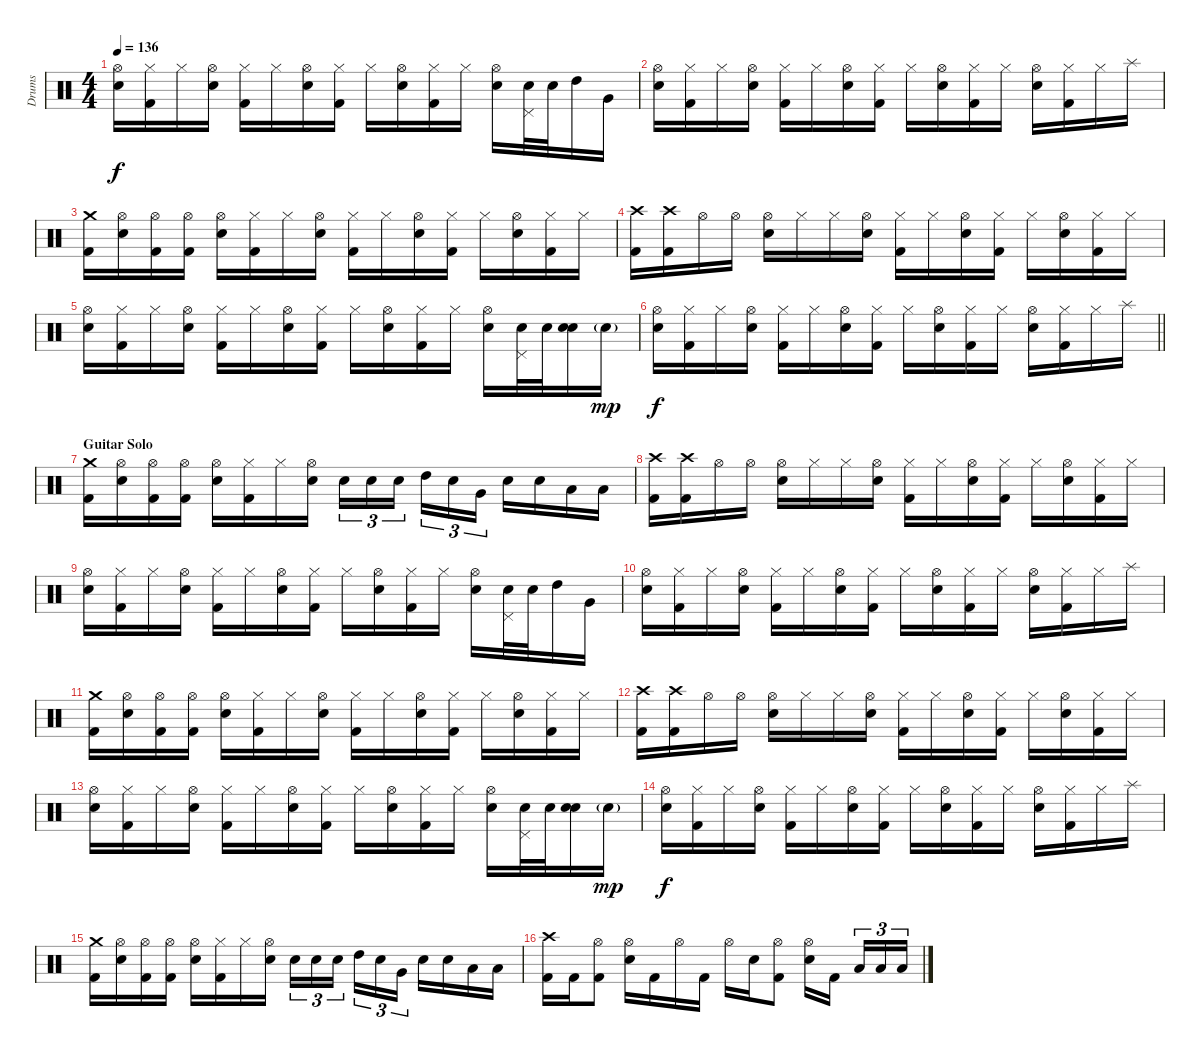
\track ("Drums" "Drums") {instrument percussion}
\staff {score}
\articulation defaults
\ts (4 4)
\tempo 136
\clef neutral
\ks c
("Hi-Hat (open)" "Electric Snare (hit)").16{dy f} ("Hi-Hat (closed)" "Kick (hit) 2").16 "Hi-Hat (closed)".16 ("Hi-Hat (open)" "Electric Snare (hit)").16 ("Hi-Hat (closed)" "Kick (hit) 2").16 "Hi-Hat (closed)".16 ("Hi-Hat (open)" "Electric Snare (hit)").16 ("Hi-Hat (closed)" "Kick (hit) 2").16 "Hi-Hat (closed)".16 ("Hi-Hat (open)" "Electric Snare (hit)").16 ("Hi-Hat (closed)" "Kick (hit) 2").16 "Hi-Hat (closed)".16 ("Hi-Hat (open)" "Electric Snare (hit)").16 ("Pedal Hi-Hat (hit)" "Electric Snare (hit)").32 "Electric Snare (hit)".32 "High Tom (hit)".16 "Very Low Tom (hit)".16 |
("Hi-Hat (open)" "Electric Snare (hit)").16 ("Hi-Hat (closed)" "Kick (hit) 2").16 "Hi-Hat (closed)".16 ("Hi-Hat (open)" "Electric Snare (hit)").16 ("Hi-Hat (closed)" "Kick (hit) 2").16 "Hi-Hat (closed)".16 ("Hi-Hat (open)" "Electric Snare (hit)").16 ("Hi-Hat (closed)" "Kick (hit) 2").16 "Hi-Hat (closed)".16 ("Hi-Hat (open)" "Electric Snare (hit)").16 ("Hi-Hat (closed)" "Kick (hit) 2").16 "Hi-Hat (closed)".16 ("Hi-Hat (open)" "Electric Snare (hit)").16 ("Hi-Hat (closed)" "Kick (hit) 2").16 "Hi-Hat (closed)".16 "Splash (hit)".16 |
("Crash medium (hit)" "Kick (hit) 2").16 ("Hi-Hat (open)" "Electric Snare (hit)").16 ("Hi-Hat (open)" "Kick (hit) 2").16 ("Hi-Hat (open)" "Kick (hit) 2").16 ("Hi-Hat (open)" "Electric Snare (hit)").16 ("Hi-Hat (closed)" "Kick (hit) 2").16 "Hi-Hat (closed)".16 ("Hi-Hat (open)" "Electric Snare (hit)").16 ("Hi-Hat (closed)" "Kick (hit) 2").16 "Hi-Hat (closed)".16 ("Hi-Hat (open)" "Electric Snare (hit)").16 ("Hi-Hat (closed)" "Kick (hit) 2").16 "Hi-Hat (closed)".16 ("Hi-Hat (open)" "Electric Snare (hit)").16 ("Hi-Hat (closed)" "Kick (hit) 2").16 "Hi-Hat (closed)".16 |
("Crash high (hit)" "Kick (hit) 2").16 ("Crash high (hit)" "Kick (hit) 2").16 "Hi-Hat (open)".16 "Hi-Hat (open)".16 ("Hi-Hat (open)" "Electric Snare (hit)").16 "Hi-Hat (closed)".16 "Hi-Hat (closed)".16 ("Hi-Hat (open)" "Electric Snare (hit)").16 ("Hi-Hat (closed)" "Kick (hit) 2").16 "Hi-Hat (closed)".16 ("Hi-Hat (open)" "Electric Snare (hit)").16 ("Hi-Hat (closed)" "Kick (hit) 2").16 "Hi-Hat (closed)".16 ("Hi-Hat (open)" "Electric Snare (hit)").16 ("Hi-Hat (closed)" "Kick (hit) 2").16 "Hi-Hat (closed)".16 |
("Hi-Hat (open)" "Electric Snare (hit)").16 ("Hi-Hat (closed)" "Kick (hit) 2").16 "Hi-Hat (closed)".16 ("Hi-Hat (open)" "Electric Snare (hit)").16 ("Hi-Hat (closed)" "Kick (hit) 2").16 "Hi-Hat (closed)".16 ("Hi-Hat (open)" "Electric Snare (hit)").16 ("Hi-Hat (closed)" "Kick (hit) 2").16 "Hi-Hat (closed)".16 ("Hi-Hat (open)" "Electric Snare (hit)").16 ("Hi-Hat (closed)" "Kick (hit) 2").16 "Hi-Hat (closed)".16 ("Hi-Hat (open)" "Electric Snare (hit)").16 ("Pedal Hi-Hat (hit)" "Electric Snare (hit)").32 "Electric Snare (hit)".32 ("Snare (hit) 2" "Electric Snare (hit)").16 "Electric Snare (hit)"{g}.16{dy mp} |
\barLineRight lightlight
("Hi-Hat (open)" "Electric Snare (hit)").16{dy f} ("Hi-Hat (closed)" "Kick (hit) 2").16 "Hi-Hat (closed)".16 ("Hi-Hat (open)" "Electric Snare (hit)").16 ("Hi-Hat (closed)" "Kick (hit) 2").16 "Hi-Hat (closed)".16 ("Hi-Hat (open)" "Electric Snare (hit)").16 ("Hi-Hat (closed)" "Kick (hit) 2").16 "Hi-Hat (closed)".16 ("Hi-Hat (open)" "Electric Snare (hit)").16 ("Hi-Hat (closed)" "Kick (hit) 2").16 "Hi-Hat (closed)".16 ("Hi-Hat (open)" "Electric Snare (hit)").16 ("Hi-Hat (closed)" "Kick (hit) 2").16 "Hi-Hat (closed)".16 "Splash (hit)".16 |
\section ("" "Guitar Solo")
("Crash medium (hit)" "Kick (hit) 2").16 ("Hi-Hat (open)" "Electric Snare (hit)").16 ("Hi-Hat (open)" "Kick (hit) 2").16 ("Hi-Hat (open)" "Kick (hit) 2").16 ("Hi-Hat (open)" "Electric Snare (hit)").16 ("Hi-Hat (closed)" "Kick (hit) 2").16 "Hi-Hat (closed)".16 ("Hi-Hat (open)" "Electric Snare (hit)").16 "Electric Snare (hit)".16{tu (3 2)} "Electric Snare (hit)".16{tu (3 2)} "Electric Snare (hit)".16{tu (3 2) beam splitsecondary} "High Tom (hit)".16{tu (3 2)} "Electric Snare (hit)".16{tu (3 2)} "Very Low Tom (hit)".16{tu (3 2)} "Electric Snare (hit)".16 "Electric Snare (hit)".16 "Low Tom (hit)".16 "Low Tom (hit)".16 |
("Crash high (hit)" "Kick (hit) 2").16 ("Crash high (hit)" "Kick (hit) 2").16 "Hi-Hat (open)".16 "Hi-Hat (open)".16 ("Hi-Hat (open)" "Electric Snare (hit)").16 "Hi-Hat (closed)".16 "Hi-Hat (closed)".16 ("Hi-Hat (open)" "Electric Snare (hit)").16 ("Hi-Hat (closed)" "Kick (hit) 2").16 "Hi-Hat (closed)".16 ("Hi-Hat (open)" "Electric Snare (hit)").16 ("Hi-Hat (closed)" "Kick (hit) 2").16 "Hi-Hat (closed)".16 ("Hi-Hat (open)" "Electric Snare (hit)").16 ("Hi-Hat (closed)" "Kick (hit) 2").16 "Hi-Hat (closed)".16 |
("Hi-Hat (open)" "Electric Snare (hit)").16 ("Hi-Hat (closed)" "Kick (hit) 2").16 "Hi-Hat (closed)".16 ("Hi-Hat (open)" "Electric Snare (hit)").16 ("Hi-Hat (closed)" "Kick (hit) 2").16 "Hi-Hat (closed)".16 ("Hi-Hat (open)" "Electric Snare (hit)").16 ("Hi-Hat (closed)" "Kick (hit) 2").16 "Hi-Hat (closed)".16 ("Hi-Hat (open)" "Electric Snare (hit)").16 ("Hi-Hat (closed)" "Kick (hit) 2").16 "Hi-Hat (closed)".16 ("Hi-Hat (open)" "Electric Snare (hit)").16 ("Pedal Hi-Hat (hit)" "Electric Snare (hit)").32 "Electric Snare (hit)".32 "High Tom (hit)".16 "Very Low Tom (hit)".16 |
("Hi-Hat (open)" "Electric Snare (hit)").16 ("Hi-Hat (closed)" "Kick (hit) 2").16 "Hi-Hat (closed)".16 ("Hi-Hat (open)" "Electric Snare (hit)").16 ("Hi-Hat (closed)" "Kick (hit) 2").16 "Hi-Hat (closed)".16 ("Hi-Hat (open)" "Electric Snare (hit)").16 ("Hi-Hat (closed)" "Kick (hit) 2").16 "Hi-Hat (closed)".16 ("Hi-Hat (open)" "Electric Snare (hit)").16 ("Hi-Hat (closed)" "Kick (hit) 2").16 "Hi-Hat (closed)".16 ("Hi-Hat (open)" "Electric Snare (hit)").16 ("Hi-Hat (closed)" "Kick (hit) 2").16 "Hi-Hat (closed)".16 "Splash (hit)".16 |
("Crash medium (hit)" "Kick (hit) 2").16 ("Hi-Hat (open)" "Electric Snare (hit)").16 ("Hi-Hat (open)" "Kick (hit) 2").16 ("Hi-Hat (open)" "Kick (hit) 2").16 ("Hi-Hat (open)" "Electric Snare (hit)").16 ("Hi-Hat (closed)" "Kick (hit) 2").16 "Hi-Hat (closed)".16 ("Hi-Hat (open)" "Electric Snare (hit)").16 ("Hi-Hat (closed)" "Kick (hit) 2").16 "Hi-Hat (closed)".16 ("Hi-Hat (open)" "Electric Snare (hit)").16 ("Hi-Hat (closed)" "Kick (hit) 2").16 "Hi-Hat (closed)".16 ("Hi-Hat (open)" "Electric Snare (hit)").16 ("Hi-Hat (closed)" "Kick (hit) 2").16 "Hi-Hat (closed)".16 |
("Crash high (hit)" "Kick (hit) 2").16 ("Crash high (hit)" "Kick (hit) 2").16 "Hi-Hat (open)".16 "Hi-Hat (open)".16 ("Hi-Hat (open)" "Electric Snare (hit)").16 "Hi-Hat (closed)".16 "Hi-Hat (closed)".16 ("Hi-Hat (open)" "Electric Snare (hit)").16 ("Hi-Hat (closed)" "Kick (hit) 2").16 "Hi-Hat (closed)".16 ("Hi-Hat (open)" "Electric Snare (hit)").16 ("Hi-Hat (closed)" "Kick (hit) 2").16 "Hi-Hat (closed)".16 ("Hi-Hat (open)" "Electric Snare (hit)").16 ("Hi-Hat (closed)" "Kick (hit) 2").16 "Hi-Hat (closed)".16 |
("Hi-Hat (open)" "Electric Snare (hit)").16 ("Hi-Hat (closed)" "Kick (hit) 2").16 "Hi-Hat (closed)".16 ("Hi-Hat (open)" "Electric Snare (hit)").16 ("Hi-Hat (closed)" "Kick (hit) 2").16 "Hi-Hat (closed)".16 ("Hi-Hat (open)" "Electric Snare (hit)").16 ("Hi-Hat (closed)" "Kick (hit) 2").16 "Hi-Hat (closed)".16 ("Hi-Hat (open)" "Electric Snare (hit)").16 ("Hi-Hat (closed)" "Kick (hit) 2").16 "Hi-Hat (closed)".16 ("Hi-Hat (open)" "Electric Snare (hit)").16 ("Pedal Hi-Hat (hit)" "Electric Snare (hit)").32 "Electric Snare (hit)".32 ("Snare (hit) 2" "Electric Snare (hit)").16 "Electric Snare (hit)"{g}.16{dy mp} |
("Hi-Hat (open)" "Electric Snare (hit)").16{dy f} ("Hi-Hat (closed)" "Kick (hit) 2").16 "Hi-Hat (closed)".16 ("Hi-Hat (open)" "Electric Snare (hit)").16 ("Hi-Hat (closed)" "Kick (hit) 2").16 "Hi-Hat (closed)".16 ("Hi-Hat (open)" "Electric Snare (hit)").16 ("Hi-Hat (closed)" "Kick (hit) 2").16 "Hi-Hat (closed)".16 ("Hi-Hat (open)" "Electric Snare (hit)").16 ("Hi-Hat (closed)" "Kick (hit) 2").16 "Hi-Hat (closed)".16 ("Hi-Hat (open)" "Electric Snare (hit)").16 ("Hi-Hat (closed)" "Kick (hit) 2").16 "Hi-Hat (closed)".16 "Splash (hit)".16 |
("Crash medium (hit)" "Kick (hit) 2").16 ("Hi-Hat (open)" "Electric Snare (hit)").16 ("Hi-Hat (open)" "Kick (hit) 2").16 ("Hi-Hat (open)" "Kick (hit) 2").16 ("Hi-Hat (open)" "Electric Snare (hit)").16 ("Hi-Hat (closed)" "Kick (hit) 2").16 "Hi-Hat (closed)".16 ("Hi-Hat (open)" "Electric Snare (hit)").16 "Electric Snare (hit)".16{tu (3 2)} "Electric Snare (hit)".16{tu (3 2)} "Electric Snare (hit)".16{tu (3 2) beam splitsecondary} "High Tom (hit)".16{tu (3 2)} "Electric Snare (hit)".16{tu (3 2)} "Very Low Tom (hit)".16{tu (3 2)} "Electric Snare (hit)".16 "Electric Snare (hit)".16 "Low Tom (hit)".16 "Low Tom (hit)".16 |
("Crash high (hit)" "Kick (hit) 2").16 "Kick (hit) 2".16 ("Hi-Hat (open)" "Kick (hit) 2").8 ("Hi-Hat (open)" "Electric Snare (hit)").16 "Kick (hit) 2".16 "Hi-Hat (open)".16 "Kick (hit) 2".16 "Hi-Hat (open)".16 "Electric Snare (hit)".16 ("Hi-Hat (open)" "Kick (hit) 2").8 ("Hi-Hat (open)" "Electric Snare (hit)").16 "Kick (hit) 2".16{beam splitsecondary} "Low Tom (hit)".16{tu (3 2)} "Low Tom (hit)".16{tu (3 2)} "Low Tom (hit)".16{tu (3 2)}
